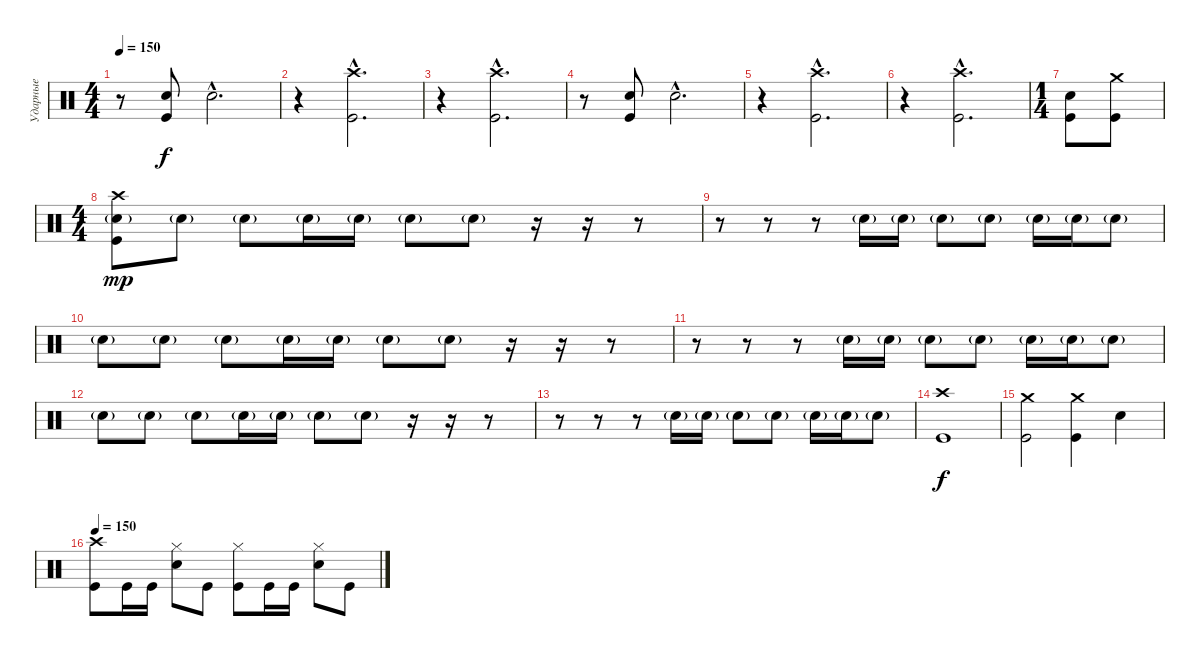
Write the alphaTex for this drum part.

\track ("Ударные" "Ударные") {instrument percussion}
\staff {score}
\articulation defaults
\ts (4 4)
\tempo 150
\clef neutral
\ks c
r.8{dy f} ("Electric Snare (hit)" "Kick (hit)").8 "Electric Snare (hit)"{hac}.2{d} |
r.4 ("Crash high (hit)"{hac} "Kick (hit)"{hac}).2{d} |
r.4 ("Crash high (hit)"{hac} "Kick (hit)"{hac}).2{d} |
r.8 ("Electric Snare (hit)" "Kick (hit)").8 "Electric Snare (hit)"{hac}.2{d} |
r.4 ("Crash high (hit)"{hac} "Kick (hit)"{hac}).2{d} |
r.4 ("Crash high (hit)"{hac} "Kick (hit)"{hac}).2{d} |
\ts (1 4)
("Electric Snare (hit)" "Kick (hit)").8 ("Crash medium (hit)" "Kick (hit)").8 |
\ts (4 4)
("Crash high (hit)" "Electric Snare (hit)"{g} "Kick (hit)").8{dy mp} "Electric Snare (hit)"{g}.8 "Electric Snare (hit)"{g}.8 "Electric Snare (hit)"{g}.16 "Electric Snare (hit)"{g}.16 "Electric Snare (hit)"{g}.8 "Electric Snare (hit)"{g}.8 r.16 r.16 r.8 |
r.8 r.8 r.8 "Electric Snare (hit)"{g}.16 "Electric Snare (hit)"{g}.16 "Electric Snare (hit)"{g}.8 "Electric Snare (hit)"{g}.8 "Electric Snare (hit)"{g}.16 "Electric Snare (hit)"{g}.16 "Electric Snare (hit)"{g}.8 |
"Electric Snare (hit)"{g}.8 "Electric Snare (hit)"{g}.8 "Electric Snare (hit)"{g}.8 "Electric Snare (hit)"{g}.16 "Electric Snare (hit)"{g}.16 "Electric Snare (hit)"{g}.8 "Electric Snare (hit)"{g}.8 r.16 r.16 r.8 |
r.8 r.8 r.8 "Electric Snare (hit)"{g}.16 "Electric Snare (hit)"{g}.16 "Electric Snare (hit)"{g}.8 "Electric Snare (hit)"{g}.8 "Electric Snare (hit)"{g}.16 "Electric Snare (hit)"{g}.16 "Electric Snare (hit)"{g}.8 |
"Electric Snare (hit)"{g}.8 "Electric Snare (hit)"{g}.8 "Electric Snare (hit)"{g}.8 "Electric Snare (hit)"{g}.16 "Electric Snare (hit)"{g}.16 "Electric Snare (hit)"{g}.8 "Electric Snare (hit)"{g}.8 r.16 r.16 r.8 |
r.8 r.8 r.8 "Electric Snare (hit)"{g}.16 "Electric Snare (hit)"{g}.16 "Electric Snare (hit)"{g}.8 "Electric Snare (hit)"{g}.8 "Electric Snare (hit)"{g}.16 "Electric Snare (hit)"{g}.16 "Electric Snare (hit)"{g}.8 |
("Crash high (hit)" "Kick (hit)").1{dy f} |
("Crash medium (hit)" "Kick (hit)").2 ("Crash medium (hit)" "Kick (hit)").4 "Electric Snare (hit)".4 |
\tempo 150
("Crash high (hit)" "Kick (hit)").8 "Kick (hit)".16 "Kick (hit)".16 ("Hi-Hat (closed)" "Electric Snare (hit)").8 "Kick (hit)".8 ("Hi-Hat (closed)" "Kick (hit)").8 "Kick (hit)".16 "Kick (hit)".16 ("Hi-Hat (closed)" "Electric Snare (hit)").8 "Kick (hit)".8
